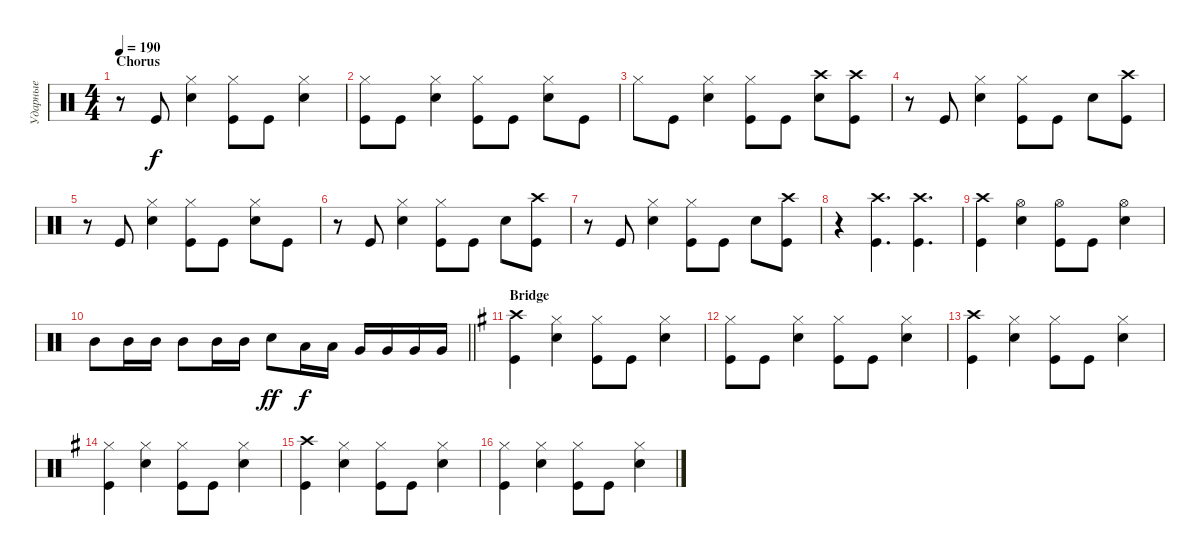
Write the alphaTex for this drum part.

\track ("Ударные" "Ударные") {instrument percussion}
\staff {score}
\articulation defaults
\ts (4 4)
\section ("" "Chorus")
\tempo 190
\clef neutral
\ks aminor
r.8{dy f} "Kick (hit)".8 ("Snare (hit) 2" "Hi-Hat (closed)").4 ("Kick (hit)" "Hi-Hat (closed)").8 "Kick (hit)".8 ("Snare (hit) 2" "Hi-Hat (closed)").4 |
("Kick (hit)" "Hi-Hat (closed)").8 "Kick (hit)".8 ("Snare (hit) 2" "Hi-Hat (closed)").4 ("Kick (hit)" "Hi-Hat (closed)").8 "Kick (hit)".8 ("Snare (hit) 2" "Hi-Hat (closed)").8 "Kick (hit)".8 |
"Hi-Hat (closed)".8 "Kick (hit)".8 ("Snare (hit) 2" "Hi-Hat (closed)").4 ("Kick (hit)" "Hi-Hat (closed)").8 "Kick (hit)".8 ("Snare (hit) 2" "Crash high (hit)").8 ("Kick (hit)" "Crash high (hit)").8 |
r.8 "Kick (hit)".8 ("Snare (hit) 2" "Hi-Hat (closed)").4 ("Kick (hit)" "Hi-Hat (closed)").8 "Kick (hit)".8 "Snare (hit) 2".8 ("Kick (hit)" "Crash high (hit)").8 |
r.8 "Kick (hit)".8 ("Snare (hit) 2" "Hi-Hat (closed)").4 ("Kick (hit)" "Hi-Hat (closed)").8 "Kick (hit)".8 ("Snare (hit) 2" "Hi-Hat (closed)").8 "Kick (hit)".8 |
r.8 "Kick (hit)".8 ("Snare (hit) 2" "Hi-Hat (closed)").4 ("Kick (hit)" "Hi-Hat (closed)").8 "Kick (hit)".8 "Snare (hit) 2".8 ("Kick (hit)" "Crash high (hit)").8 |
r.8 "Kick (hit)".8 ("Snare (hit) 2" "Hi-Hat (closed)").4 ("Kick (hit)" "Hi-Hat (closed)").8 "Kick (hit)".8 "Snare (hit) 2".8 ("Kick (hit)" "Crash high (hit)").8 |
r.4 ("Crash high (hit)" "Kick (hit)").4{d} ("Kick (hit)" "Crash high (hit)").4{d} |
("Kick (hit)" "Crash high (hit)").4 ("Snare (hit) 2" "Hi-Hat (open)").4 ("Kick (hit)" "Hi-Hat (open)").8 "Kick (hit)".8 ("Snare (hit) 2" "Hi-Hat (open)").4 |
\barLineRight lightlight "Mid Tom (hit)".8 "Mid Tom (hit)".16 "Mid Tom (hit)".16 "Mid Tom (hit)".8 "Mid Tom (hit)".16 "Mid Tom (hit)".16 "Snare (hit) 2".8{dy ff} "Low Tom (hit)".16{dy f} "Low Tom (hit)".16 "Very Low Tom (hit)".16 "Very Low Tom (hit)".16 "Very Low Tom (hit)".16 "Very Low Tom (hit)".16
|
\section ("" "Bridge")
\ks eminor
("Kick (hit)" "Crash high (hit)").4 ("Hi-Hat (closed)" "Snare (hit) 2").4 ("Kick (hit)" "Hi-Hat (closed)").8 "Kick (hit)".8 ("Snare (hit) 2" "Hi-Hat (closed)").4 |
("Kick (hit)" "Hi-Hat (closed)").8 "Kick (hit)".8 ("Snare (hit) 2" "Hi-Hat (closed)").4 ("Kick (hit)" "Hi-Hat (closed)").8 "Kick (hit)".8 ("Snare (hit) 2" "Hi-Hat (closed)").4 |
("Kick (hit)" "Crash high (hit)").4 ("Hi-Hat (closed)" "Snare (hit) 2").4 ("Kick (hit)" "Hi-Hat (closed)").8 "Kick (hit)".8 ("Snare (hit) 2" "Hi-Hat (closed)").4 |
("Kick (hit)" "Hi-Hat (closed)").4 ("Snare (hit) 2" "Hi-Hat (closed)").4 ("Kick (hit)" "Hi-Hat (closed)").8 "Kick (hit)".8 ("Snare (hit) 2" "Hi-Hat (closed)").4 |
("Kick (hit)" "Crash high (hit)").4 ("Hi-Hat (closed)" "Snare (hit) 2").4 ("Kick (hit)" "Hi-Hat (closed)").8 "Kick (hit)".8 ("Snare (hit) 2" "Hi-Hat (closed)").4 |
("Kick (hit)" "Hi-Hat (closed)").4 ("Snare (hit) 2" "Hi-Hat (closed)").4 ("Kick (hit)" "Hi-Hat (closed)").8 "Kick (hit)".8 ("Snare (hit) 2" "Hi-Hat (closed)").4
